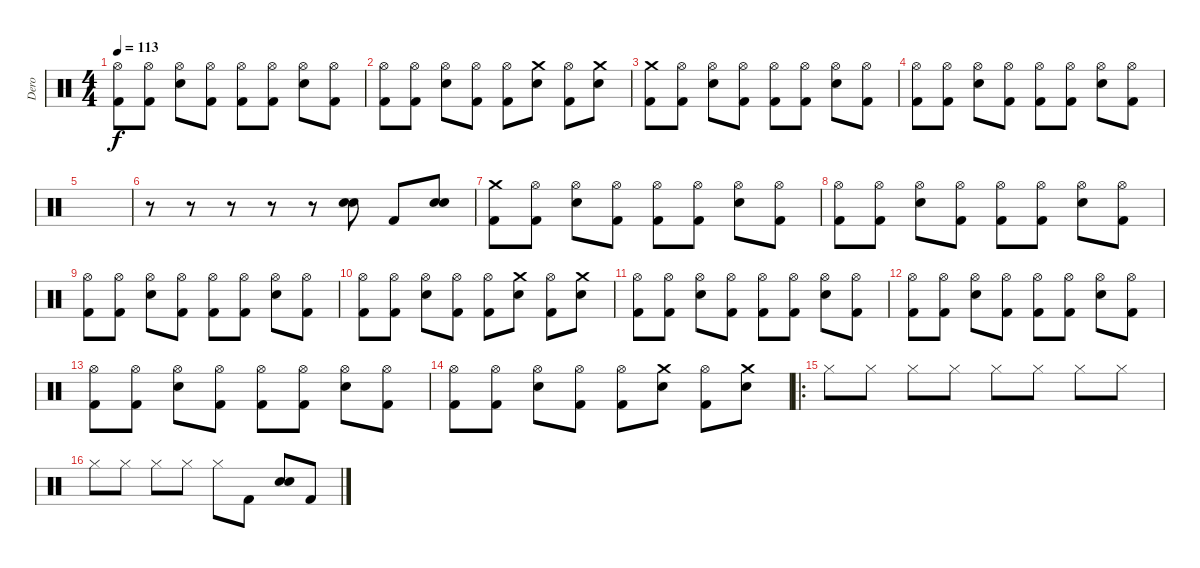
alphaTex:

\track ("Dero" "Dero") {instrument percussion}
\staff {score}
\articulation defaults
\ts (4 4)
\tempo 113
\clef neutral
\ks c
("Hi-Hat (open)" "Kick (hit) 2").8{dy f} ("Hi-Hat (open)" "Kick (hit) 2").8 ("Hi-Hat (open)" "Electric Snare (hit)").8 ("Hi-Hat (open)" "Kick (hit) 2").8 ("Hi-Hat (open)" "Kick (hit) 2").8 ("Hi-Hat (open)" "Kick (hit) 2").8 ("Hi-Hat (open)" "Electric Snare (hit)").8 ("Hi-Hat (open)" "Kick (hit) 2").8 |
("Hi-Hat (open)" "Kick (hit) 2").8 ("Hi-Hat (open)" "Kick (hit) 2").8 ("Hi-Hat (open)" "Electric Snare (hit)").8 ("Hi-Hat (open)" "Kick (hit) 2").8 ("Hi-Hat (open)" "Kick (hit) 2").8 ("Crash medium (hit)" "Electric Snare (hit)").8 ("Hi-Hat (open)" "Kick (hit) 2").8 ("Crash medium (hit)" "Electric Snare (hit)").8 |
("Crash medium (hit)" "Kick (hit) 2").8 ("Hi-Hat (open)" "Kick (hit) 2").8 ("Hi-Hat (open)" "Electric Snare (hit)").8 ("Hi-Hat (open)" "Kick (hit) 2").8 ("Hi-Hat (open)" "Kick (hit) 2").8 ("Hi-Hat (open)" "Kick (hit) 2").8 ("Hi-Hat (open)" "Electric Snare (hit)").8 ("Hi-Hat (open)" "Kick (hit) 2").8 |
("Hi-Hat (open)" "Kick (hit) 2").8 ("Hi-Hat (open)" "Kick (hit) 2").8 ("Hi-Hat (open)" "Electric Snare (hit)").8 ("Hi-Hat (open)" "Kick (hit) 2").8 ("Hi-Hat (open)" "Kick (hit) 2").8 ("Hi-Hat (open)" "Kick (hit) 2").8 ("Hi-Hat (open)" "Electric Snare (hit)").8 ("Hi-Hat (open)" "Kick (hit) 2").8 |
|
r.8 r.8 r.8 r.8 r.8 ("Electric Snare (hit)" "Electric Snare (hit)").8 "Kick (hit) 2".8 ("Electric Snare (hit)" "Electric Snare (hit)").8 |
("Crash medium (hit)" "Kick (hit) 2").8 ("Hi-Hat (open)" "Kick (hit) 2").8 ("Hi-Hat (open)" "Electric Snare (hit)").8 ("Hi-Hat (open)" "Kick (hit) 2").8 ("Hi-Hat (open)" "Kick (hit) 2").8 ("Hi-Hat (open)" "Kick (hit) 2").8 ("Hi-Hat (open)" "Electric Snare (hit)").8 ("Hi-Hat (open)" "Kick (hit) 2").8 |
("Hi-Hat (open)" "Kick (hit) 2").8 ("Hi-Hat (open)" "Kick (hit) 2").8 ("Hi-Hat (open)" "Electric Snare (hit)").8 ("Hi-Hat (open)" "Kick (hit) 2").8 ("Hi-Hat (open)" "Kick (hit) 2").8 ("Hi-Hat (open)" "Kick (hit) 2").8 ("Hi-Hat (open)" "Electric Snare (hit)").8 ("Hi-Hat (open)" "Kick (hit) 2").8 |
("Hi-Hat (open)" "Kick (hit) 2").8 ("Hi-Hat (open)" "Kick (hit) 2").8 ("Hi-Hat (open)" "Electric Snare (hit)").8 ("Hi-Hat (open)" "Kick (hit) 2").8 ("Hi-Hat (open)" "Kick (hit) 2").8 ("Hi-Hat (open)" "Kick (hit) 2").8 ("Hi-Hat (open)" "Electric Snare (hit)").8 ("Hi-Hat (open)" "Kick (hit) 2").8 |
("Hi-Hat (open)" "Kick (hit) 2").8 ("Hi-Hat (open)" "Kick (hit) 2").8 ("Hi-Hat (open)" "Electric Snare (hit)").8 ("Hi-Hat (open)" "Kick (hit) 2").8 ("Hi-Hat (open)" "Kick (hit) 2").8 ("Crash medium (hit)" "Electric Snare (hit)").8 ("Hi-Hat (open)" "Kick (hit) 2").8 ("Crash medium (hit)" "Electric Snare (hit)").8 |
("Hi-Hat (open)" "Kick (hit) 2").8 ("Hi-Hat (open)" "Kick (hit) 2").8 ("Hi-Hat (open)" "Electric Snare (hit)").8 ("Hi-Hat (open)" "Kick (hit) 2").8 ("Hi-Hat (open)" "Kick (hit) 2").8 ("Hi-Hat (open)" "Kick (hit) 2").8 ("Hi-Hat (open)" "Electric Snare (hit)").8 ("Hi-Hat (open)" "Kick (hit) 2").8 |
("Hi-Hat (open)" "Kick (hit) 2").8 ("Hi-Hat (open)" "Kick (hit) 2").8 ("Hi-Hat (open)" "Electric Snare (hit)").8 ("Hi-Hat (open)" "Kick (hit) 2").8 ("Hi-Hat (open)" "Kick (hit) 2").8 ("Hi-Hat (open)" "Kick (hit) 2").8 ("Hi-Hat (open)" "Electric Snare (hit)").8 ("Hi-Hat (open)" "Kick (hit) 2").8 |
("Hi-Hat (open)" "Kick (hit) 2").8 ("Hi-Hat (open)" "Kick (hit) 2").8 ("Hi-Hat (open)" "Electric Snare (hit)").8 ("Hi-Hat (open)" "Kick (hit) 2").8 ("Hi-Hat (open)" "Kick (hit) 2").8 ("Hi-Hat (open)" "Kick (hit) 2").8 ("Hi-Hat (open)" "Electric Snare (hit)").8 ("Hi-Hat (open)" "Kick (hit) 2").8 |
("Hi-Hat (open)" "Kick (hit) 2").8 ("Hi-Hat (open)" "Kick (hit) 2").8 ("Hi-Hat (open)" "Electric Snare (hit)").8 ("Hi-Hat (open)" "Kick (hit) 2").8 ("Hi-Hat (open)" "Kick (hit) 2").8 ("Crash medium (hit)" "Electric Snare (hit)").8 ("Hi-Hat (open)" "Kick (hit) 2").8 ("Crash medium (hit)" "Electric Snare (hit)").8 |
\ro "Hi-Hat (closed)".8 "Hi-Hat (closed)".8 "Hi-Hat (closed)".8 "Hi-Hat (closed)".8 "Hi-Hat (closed)".8 "Hi-Hat (closed)".8 "Hi-Hat (closed)".8 "Hi-Hat (closed)".8
|
"Hi-Hat (closed)".8 "Hi-Hat (closed)".8 "Hi-Hat (closed)".8 "Hi-Hat (closed)".8 "Hi-Hat (closed)".8 "Kick (hit) 2".8 ("Electric Snare (hit)" "Electric Snare (hit)").8 "Kick (hit) 2".8
